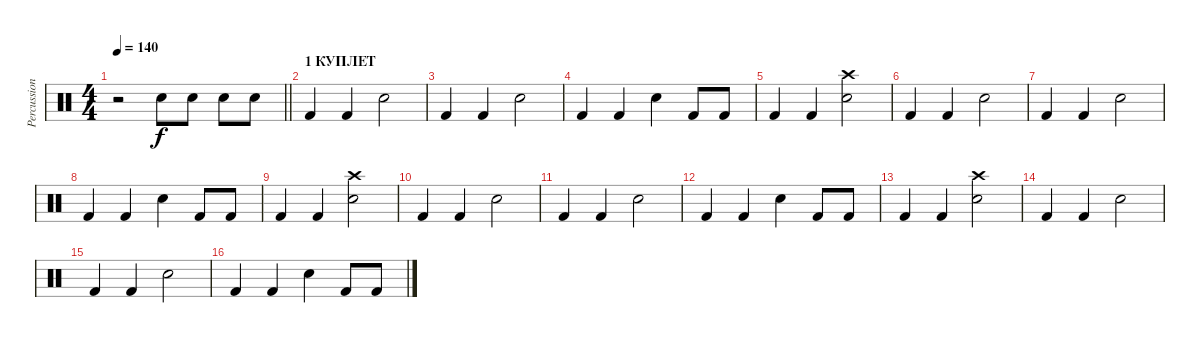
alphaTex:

\track ("Percussion" "Percussion") {instrument percussion}
\staff {score}
\articulation defaults
\ts (4 4)
\tempo 140
\clef neutral
\barLineRight lightlight
\ks c
r.2{dy f} "Snare (hit) 2".8 "Snare (hit) 2".8 "Snare (hit) 2".8 "Snare (hit) 2".8 |
\section ("" "1 КУПЛЕТ")
"Kick (hit) 2".4 "Kick (hit) 2".4 "Snare (hit) 2".2 |
"Kick (hit) 2".4 "Kick (hit) 2".4 "Snare (hit) 2".2 |
"Kick (hit) 2".4 "Kick (hit) 2".4 "Snare (hit) 2".4 "Kick (hit) 2".8 "Kick (hit) 2".8 |
"Kick (hit) 2".4 "Kick (hit) 2".4 ("Crash high (hit)" "Snare (hit) 2").2 |
"Kick (hit) 2".4 "Kick (hit) 2".4 "Snare (hit) 2".2 |
"Kick (hit) 2".4 "Kick (hit) 2".4 "Snare (hit) 2".2 |
"Kick (hit) 2".4 "Kick (hit) 2".4 "Snare (hit) 2".4 "Kick (hit) 2".8 "Kick (hit) 2".8 |
"Kick (hit) 2".4 "Kick (hit) 2".4 ("Crash high (hit)" "Snare (hit) 2").2 |
"Kick (hit) 2".4 "Kick (hit) 2".4 "Snare (hit) 2".2 |
"Kick (hit) 2".4 "Kick (hit) 2".4 "Snare (hit) 2".2 |
"Kick (hit) 2".4 "Kick (hit) 2".4 "Snare (hit) 2".4 "Kick (hit) 2".8 "Kick (hit) 2".8 |
"Kick (hit) 2".4 "Kick (hit) 2".4 ("Crash high (hit)" "Snare (hit) 2").2 |
"Kick (hit) 2".4 "Kick (hit) 2".4 "Snare (hit) 2".2 |
"Kick (hit) 2".4 "Kick (hit) 2".4 "Snare (hit) 2".2 |
"Kick (hit) 2".4 "Kick (hit) 2".4 "Snare (hit) 2".4 "Kick (hit) 2".8 "Kick (hit) 2".8
